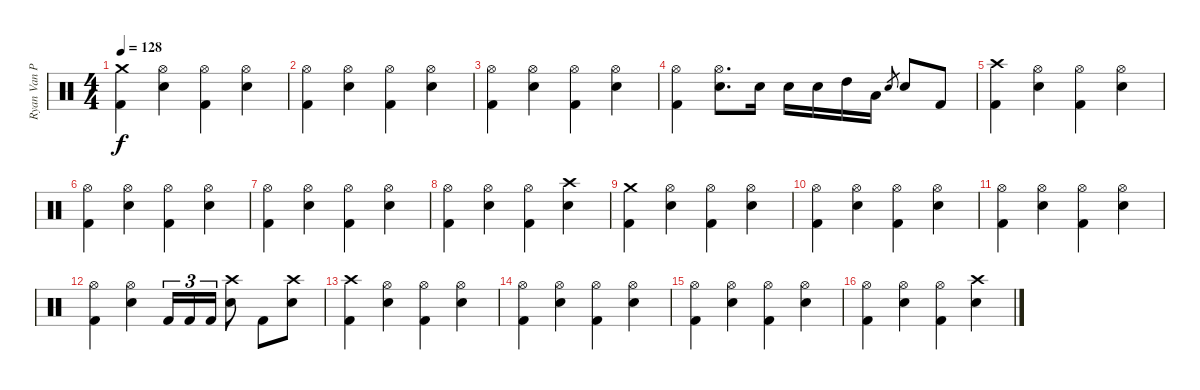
\track ("Ryan Van Poederooyen" "Ryan Van P") {instrument percussion}
\staff {score}
\articulation defaults
\ts (4 4)
\tempo 128
\clef neutral
\ks c
("Crash medium (hit)" "Kick (hit) 2").4{dy f} ("Hi-Hat (open)" "Electric Snare (hit)").4 ("Hi-Hat (open)" "Kick (hit) 2").4 ("Hi-Hat (open)" "Electric Snare (hit)").4 |
("Hi-Hat (open)" "Kick (hit) 2").4 ("Hi-Hat (open)" "Electric Snare (hit)").4 ("Hi-Hat (open)" "Kick (hit) 2").4 ("Hi-Hat (open)" "Electric Snare (hit)").4 |
("Hi-Hat (open)" "Kick (hit) 2").4 ("Hi-Hat (open)" "Electric Snare (hit)").4 ("Hi-Hat (open)" "Kick (hit) 2").4 ("Hi-Hat (open)" "Electric Snare (hit)").4 |
("Hi-Hat (open)" "Kick (hit) 2").4 ("Hi-Hat (open)" "Electric Snare (hit)").8{d} "Electric Snare (hit)".16 "Electric Snare (hit)".16 "Electric Snare (hit)".16 "High Tom (hit)".16 "Low Tom (hit)".16 "Electric Snare (hit)".8{gr} "Electric Snare (hit)".8 "Kick (hit) 2".8 |
("Crash high (hit)" "Kick (hit) 2").4 ("Hi-Hat (open)" "Electric Snare (hit)").4 ("Hi-Hat (open)" "Kick (hit) 2").4 ("Hi-Hat (open)" "Electric Snare (hit)").4 |
("Hi-Hat (open)" "Kick (hit) 2").4 ("Hi-Hat (open)" "Electric Snare (hit)").4 ("Hi-Hat (open)" "Kick (hit) 2").4 ("Hi-Hat (open)" "Electric Snare (hit)").4 |
("Hi-Hat (open)" "Kick (hit) 2").4 ("Hi-Hat (open)" "Electric Snare (hit)").4 ("Hi-Hat (open)" "Kick (hit) 2").4 ("Hi-Hat (open)" "Electric Snare (hit)").4 |
("Hi-Hat (open)" "Kick (hit) 2").4 ("Hi-Hat (open)" "Electric Snare (hit)").4 ("Hi-Hat (open)" "Kick (hit) 2").4 ("Crash high (hit)" "Electric Snare (hit)").4 |
("Crash medium (hit)" "Kick (hit) 2").4 ("Hi-Hat (open)" "Electric Snare (hit)").4 ("Hi-Hat (open)" "Kick (hit) 2").4 ("Hi-Hat (open)" "Electric Snare (hit)").4 |
("Hi-Hat (open)" "Kick (hit) 2").4 ("Hi-Hat (open)" "Electric Snare (hit)").4 ("Hi-Hat (open)" "Kick (hit) 2").4 ("Hi-Hat (open)" "Electric Snare (hit)").4 |
("Hi-Hat (open)" "Kick (hit) 2").4 ("Hi-Hat (open)" "Electric Snare (hit)").4 ("Hi-Hat (open)" "Kick (hit) 2").4 ("Hi-Hat (open)" "Electric Snare (hit)").4 |
("Hi-Hat (open)" "Kick (hit) 2").4 ("Hi-Hat (open)" "Electric Snare (hit)").4 "Kick (hit) 2".16{tu (3 2)} "Kick (hit) 2".16{tu (3 2)} "Kick (hit) 2".16{tu (3 2)} ("Crash high (hit)" "Electric Snare (hit)").8 "Kick (hit) 2".8 ("Crash high (hit)" "Electric Snare (hit)").8 |
("Crash high (hit)" "Kick (hit) 2").4 ("Hi-Hat (open)" "Electric Snare (hit)").4 ("Hi-Hat (open)" "Kick (hit) 2").4 ("Hi-Hat (open)" "Electric Snare (hit)").4 |
("Hi-Hat (open)" "Kick (hit) 2").4 ("Hi-Hat (open)" "Electric Snare (hit)").4 ("Hi-Hat (open)" "Kick (hit) 2").4 ("Hi-Hat (open)" "Electric Snare (hit)").4 |
("Hi-Hat (open)" "Kick (hit) 2").4 ("Hi-Hat (open)" "Electric Snare (hit)").4 ("Hi-Hat (open)" "Kick (hit) 2").4 ("Hi-Hat (open)" "Electric Snare (hit)").4 |
("Hi-Hat (open)" "Kick (hit) 2").4 ("Hi-Hat (open)" "Electric Snare (hit)").4 ("Hi-Hat (open)" "Kick (hit) 2").4 ("Crash high (hit)" "Electric Snare (hit)").4
